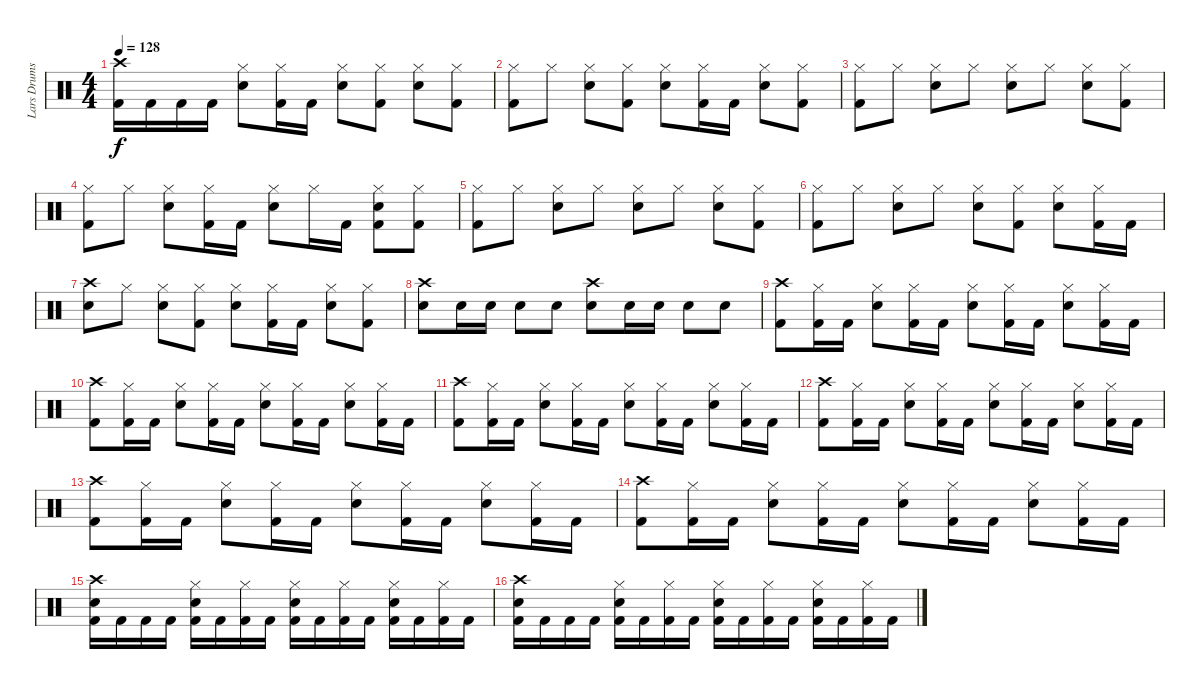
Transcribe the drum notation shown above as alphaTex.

\track ("Lars Drums" "Lars Drums") {instrument percussion}
\staff {score}
\articulation defaults
\ts (4 4)
\tempo 128
\clef neutral
\ks c
("Crash high (hit)" "Kick (hit) 2").16{dy f} "Kick (hit) 2".16 "Kick (hit) 2".16 "Kick (hit) 2".16 ("Hi-Hat (closed)" "Electric Snare (hit)").8 ("Hi-Hat (closed)" "Kick (hit) 2").16 "Kick (hit) 2".16 ("Hi-Hat (closed)" "Electric Snare (hit)").8 ("Hi-Hat (closed)" "Kick (hit) 2").8 ("Hi-Hat (closed)" "Electric Snare (hit)").8 ("Hi-Hat (closed)" "Kick (hit) 2").8 |
("Hi-Hat (closed)" "Kick (hit) 2").8 "Hi-Hat (closed)".8 ("Hi-Hat (closed)" "Electric Snare (hit)").8 ("Hi-Hat (closed)" "Kick (hit) 2").8 ("Hi-Hat (closed)" "Electric Snare (hit)").8 ("Hi-Hat (closed)" "Kick (hit) 2").16 "Kick (hit) 2".16 ("Hi-Hat (closed)" "Electric Snare (hit)").8 ("Hi-Hat (closed)" "Kick (hit) 2").8 |
("Hi-Hat (closed)" "Kick (hit) 2").8 "Hi-Hat (closed)".8 ("Hi-Hat (closed)" "Electric Snare (hit)").8 "Hi-Hat (closed)".8 ("Hi-Hat (closed)" "Electric Snare (hit)").8 "Hi-Hat (closed)".8 ("Hi-Hat (closed)" "Electric Snare (hit)").8 ("Hi-Hat (closed)" "Kick (hit) 2").8 |
("Hi-Hat (closed)" "Kick (hit) 2").8 "Hi-Hat (closed)".8 ("Hi-Hat (closed)" "Electric Snare (hit)").8 ("Hi-Hat (closed)" "Kick (hit) 2").16 "Kick (hit) 2".16 ("Hi-Hat (closed)" "Electric Snare (hit)").8 "Hi-Hat (closed)".16 "Kick (hit) 2".16 ("Hi-Hat (closed)" "Electric Snare (hit)" "Kick (hit) 2").8 ("Hi-Hat (closed)" "Kick (hit) 2").8 |
("Hi-Hat (closed)" "Kick (hit) 2").8 "Hi-Hat (closed)".8 ("Hi-Hat (closed)" "Electric Snare (hit)").8 "Hi-Hat (closed)".8 ("Hi-Hat (closed)" "Electric Snare (hit)").8 "Hi-Hat (closed)".8 ("Hi-Hat (closed)" "Electric Snare (hit)").8 ("Hi-Hat (closed)" "Kick (hit) 2").8 |
("Hi-Hat (closed)" "Kick (hit) 2").8 "Hi-Hat (closed)".8 ("Hi-Hat (closed)" "Electric Snare (hit)").8 "Hi-Hat (closed)".8 ("Hi-Hat (closed)" "Electric Snare (hit)").8 ("Hi-Hat (closed)" "Kick (hit) 2").8 ("Hi-Hat (closed)" "Electric Snare (hit)").8 ("Hi-Hat (closed)" "Kick (hit) 2").16 "Kick (hit) 2".16 |
("Crash high (hit)" "Electric Snare (hit)").8 "Hi-Hat (closed)".8 ("Hi-Hat (closed)" "Electric Snare (hit)").8 ("Hi-Hat (closed)" "Kick (hit) 2").8 ("Hi-Hat (closed)" "Electric Snare (hit)").8 ("Hi-Hat (closed)" "Kick (hit) 2").16 "Kick (hit) 2".16 ("Hi-Hat (closed)" "Electric Snare (hit)").8 ("Hi-Hat (closed)" "Kick (hit) 2").8 |
("Crash high (hit)" "Electric Snare (hit)").8 "Electric Snare (hit)".16 "Electric Snare (hit)".16 "Electric Snare (hit)".8 "Electric Snare (hit)".8 ("Crash high (hit)" "Electric Snare (hit)").8 "Electric Snare (hit)".16 "Electric Snare (hit)".16 "Electric Snare (hit)".8 "Electric Snare (hit)".8 |
("Crash high (hit)" "Kick (hit) 2").8 ("Hi-Hat (closed)" "Kick (hit) 2").16 "Kick (hit) 2".16 ("Hi-Hat (closed)" "Electric Snare (hit)").8 ("Hi-Hat (closed)" "Kick (hit) 2").16 "Kick (hit) 2".16 ("Hi-Hat (closed)" "Electric Snare (hit)").8 ("Hi-Hat (closed)" "Kick (hit) 2").16 "Kick (hit) 2".16 ("Hi-Hat (closed)" "Electric Snare (hit)").8 ("Hi-Hat (closed)" "Kick (hit) 2").16 "Kick (hit) 2".16 |
("Crash high (hit)" "Kick (hit) 2").8 ("Hi-Hat (closed)" "Kick (hit) 2").16 "Kick (hit) 2".16 ("Hi-Hat (closed)" "Electric Snare (hit)").8 ("Hi-Hat (closed)" "Kick (hit) 2").16 "Kick (hit) 2".16 ("Hi-Hat (closed)" "Electric Snare (hit)").8 ("Hi-Hat (closed)" "Kick (hit) 2").16 "Kick (hit) 2".16 ("Hi-Hat (closed)" "Electric Snare (hit)").8 ("Hi-Hat (closed)" "Kick (hit) 2").16 "Kick (hit) 2".16 |
("Crash high (hit)" "Kick (hit) 2").8 ("Hi-Hat (closed)" "Kick (hit) 2").16 "Kick (hit) 2".16 ("Hi-Hat (closed)" "Electric Snare (hit)").8 ("Hi-Hat (closed)" "Kick (hit) 2").16 "Kick (hit) 2".16 ("Hi-Hat (closed)" "Electric Snare (hit)").8 ("Hi-Hat (closed)" "Kick (hit) 2").16 "Kick (hit) 2".16 ("Hi-Hat (closed)" "Electric Snare (hit)").8 ("Hi-Hat (closed)" "Kick (hit) 2").16 "Kick (hit) 2".16 |
("Crash high (hit)" "Kick (hit) 2").8 ("Hi-Hat (closed)" "Kick (hit) 2").16 "Kick (hit) 2".16 ("Hi-Hat (closed)" "Electric Snare (hit)").8 ("Hi-Hat (closed)" "Kick (hit) 2").16 "Kick (hit) 2".16 ("Hi-Hat (closed)" "Electric Snare (hit)").8 ("Hi-Hat (closed)" "Kick (hit) 2").16 "Kick (hit) 2".16 ("Hi-Hat (closed)" "Electric Snare (hit)").8 ("Hi-Hat (closed)" "Kick (hit) 2").16 "Kick (hit) 2".16 |
("Crash high (hit)" "Kick (hit) 2").8 ("Hi-Hat (closed)" "Kick (hit) 2").16 "Kick (hit) 2".16 ("Hi-Hat (closed)" "Electric Snare (hit)").8 ("Hi-Hat (closed)" "Kick (hit) 2").16 "Kick (hit) 2".16 ("Hi-Hat (closed)" "Electric Snare (hit)").8 ("Hi-Hat (closed)" "Kick (hit) 2").16 "Kick (hit) 2".16 ("Hi-Hat (closed)" "Electric Snare (hit)").8 ("Hi-Hat (closed)" "Kick (hit) 2").16 "Kick (hit) 2".16 |
("Crash high (hit)" "Kick (hit) 2").8 ("Hi-Hat (closed)" "Kick (hit) 2").16 "Kick (hit) 2".16 ("Hi-Hat (closed)" "Electric Snare (hit)").8 ("Hi-Hat (closed)" "Kick (hit) 2").16 "Kick (hit) 2".16 ("Hi-Hat (closed)" "Electric Snare (hit)").8 ("Hi-Hat (closed)" "Kick (hit) 2").16 "Kick (hit) 2".16 ("Hi-Hat (closed)" "Electric Snare (hit)").8 ("Hi-Hat (closed)" "Kick (hit) 2").16 "Kick (hit) 2".16 |
("Crash high (hit)" "Electric Snare (hit)" "Kick (hit) 2").16 "Kick (hit) 2".16 "Kick (hit) 2".16 "Kick (hit) 2".16 ("Hi-Hat (closed)" "Electric Snare (hit)" "Kick (hit) 2").16 "Kick (hit) 2".16 ("Hi-Hat (closed)" "Kick (hit) 2").16 "Kick (hit) 2".16 ("Hi-Hat (closed)" "Electric Snare (hit)" "Kick (hit) 2").16 "Kick (hit) 2".16 ("Hi-Hat (closed)" "Kick (hit) 2").16 "Kick (hit) 2".16 ("Hi-Hat (closed)" "Electric Snare (hit)" "Kick (hit) 2").16 "Kick (hit) 2".16 ("Hi-Hat (closed)" "Kick (hit) 2").16 "Kick (hit) 2".16 |
("Crash high (hit)" "Electric Snare (hit)" "Kick (hit) 2").16 "Kick (hit) 2".16 "Kick (hit) 2".16 "Kick (hit) 2".16 ("Hi-Hat (closed)" "Electric Snare (hit)" "Kick (hit) 2").16 "Kick (hit) 2".16 ("Hi-Hat (closed)" "Kick (hit) 2").16 "Kick (hit) 2".16 ("Hi-Hat (closed)" "Electric Snare (hit)" "Kick (hit) 2").16 "Kick (hit) 2".16 ("Hi-Hat (closed)" "Kick (hit) 2").16 "Kick (hit) 2".16 ("Hi-Hat (closed)" "Electric Snare (hit)" "Kick (hit) 2").16 "Kick (hit) 2".16 ("Hi-Hat (closed)" "Kick (hit) 2").16 "Kick (hit) 2".16
